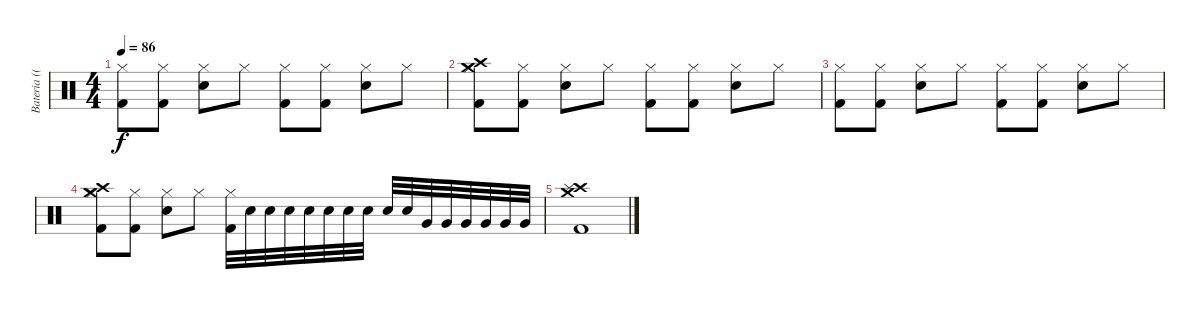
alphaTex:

\track ("Bateria ((Matt))" "Bateria ((") {instrument percussion}
\staff {score}
\articulation defaults
\ts (4 4)
\tempo 86
\clef neutral
\ks c
("Hi-Hat (closed)" "Kick (hit) 2").8{dy f} ("Hi-Hat (closed)" "Kick (hit) 2").8 ("Hi-Hat (closed)" "Electric Snare (hit)").8 "Hi-Hat (closed)".8 ("Hi-Hat (closed)" "Kick (hit) 2").8 ("Hi-Hat (closed)" "Kick (hit) 2").8 ("Hi-Hat (closed)" "Electric Snare (hit)").8 "Hi-Hat (closed)".8 |
("Hi-Hat (closed)" "Crash high (hit)" "Crash medium (hit)" "Kick (hit) 2").8 ("Hi-Hat (closed)" "Kick (hit) 2").8 ("Hi-Hat (closed)" "Electric Snare (hit)").8 "Hi-Hat (closed)".8 ("Hi-Hat (closed)" "Kick (hit) 2").8 ("Hi-Hat (closed)" "Kick (hit) 2").8 ("Hi-Hat (closed)" "Electric Snare (hit)").8 "Hi-Hat (closed)".8 |
("Hi-Hat (closed)" "Kick (hit) 2").8 ("Hi-Hat (closed)" "Kick (hit) 2").8 ("Hi-Hat (closed)" "Electric Snare (hit)").8 "Hi-Hat (closed)".8 ("Hi-Hat (closed)" "Kick (hit) 2").8 ("Hi-Hat (closed)" "Kick (hit) 2").8 ("Hi-Hat (closed)" "Electric Snare (hit)").8 "Hi-Hat (closed)".8 |
("Hi-Hat (closed)" "Crash high (hit)" "Crash medium (hit)" "Kick (hit) 2").8 ("Hi-Hat (closed)" "Kick (hit) 2").8 ("Hi-Hat (closed)" "Electric Snare (hit)").8 "Hi-Hat (closed)".8 ("Hi-Hat (closed)" "Kick (hit) 2").32 "Electric Snare (hit)".32 "Electric Snare (hit)".32 "Electric Snare (hit)".32 "Electric Snare (hit)".32 "Electric Snare (hit)".32 "Electric Snare (hit)".32 "Electric Snare (hit)".32 "Electric Snare (hit)".32 "Electric Snare (hit)".32 "Very Low Tom (hit)".32 "Very Low Tom (hit)".32 "Very Low Tom (hit)".32 "Very Low Tom (hit)".32 "Very Low Tom (hit)".32 "Very Low Tom (hit)".32 |
("Crash medium (hit)" "Crash high (hit)" "Splash (hit)" "Kick (hit) 2").1
